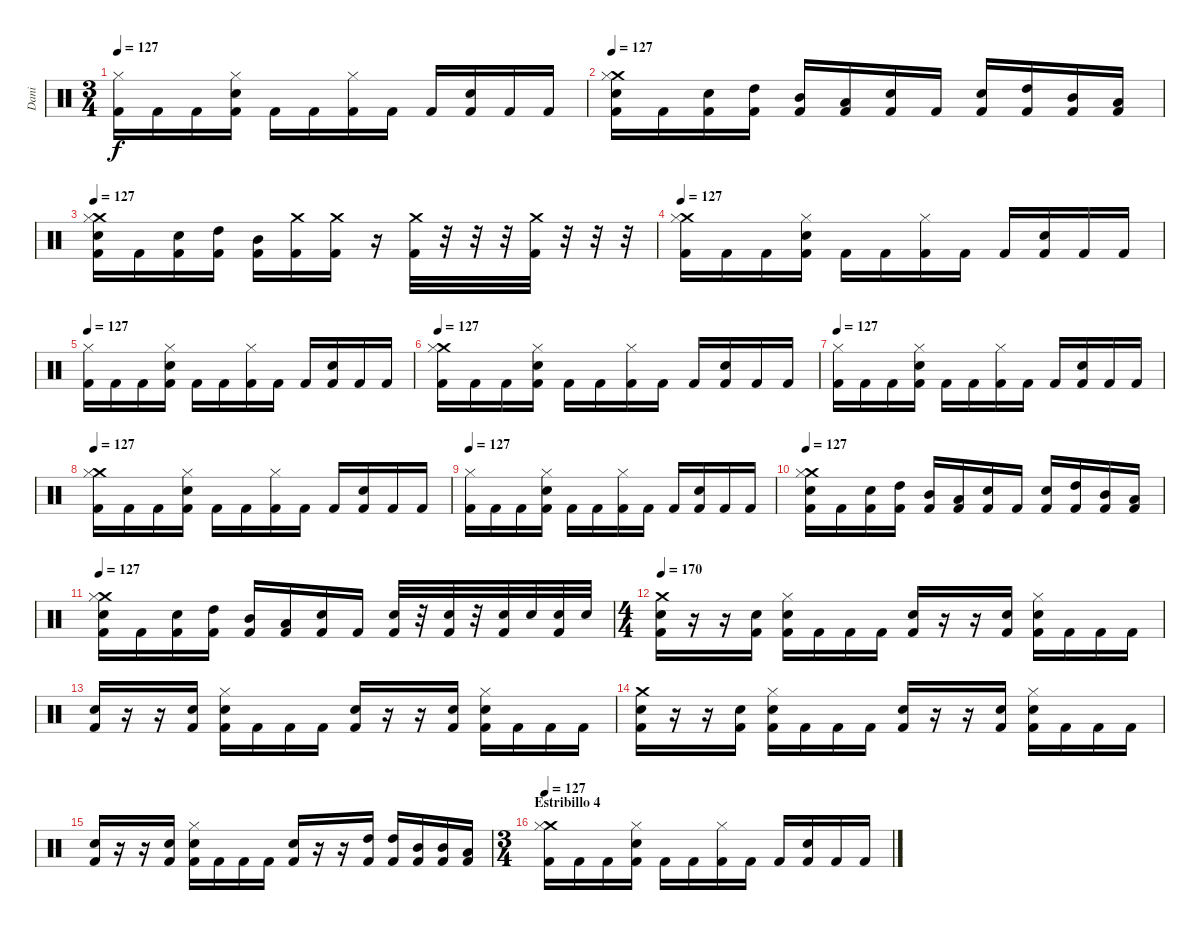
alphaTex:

\track ("Dani" "Dani") {instrument percussion}
\staff {score}
\articulation defaults
\ts (3 4)
\tempo 127
\clef neutral
\ks c
("Hi-Hat (closed)" "Kick (hit) 2").16{dy f} "Kick (hit) 2".16 "Kick (hit) 2".16 ("Hi-Hat (closed)" "Electric Snare (hit)" "Kick (hit) 2").16 "Kick (hit) 2".16 "Kick (hit) 2".16 ("Hi-Hat (closed)" "Kick (hit) 2").16 "Kick (hit) 2".16 "Kick (hit) 2".16 ("Electric Snare (hit)" "Kick (hit) 2").16 "Kick (hit) 2".16 "Kick (hit) 2".16 |
\tempo 127
("Crash medium (hit)" "Hi-Hat (closed)" "Electric Snare (hit)" "Kick (hit) 2").16 "Kick (hit) 2".16 ("Electric Snare (hit)" "Kick (hit) 2").16 ("High Tom (hit)" "Kick (hit) 2").16 ("Mid Tom (hit)" "Kick (hit) 2").16 ("Low Tom (hit)" "Kick (hit) 2").16 ("Electric Snare (hit)" "Kick (hit) 2").16 "Kick (hit) 2".16 ("Electric Snare (hit)" "Kick (hit) 2").16 ("High Tom (hit)" "Kick (hit) 2").16 ("Mid Tom (hit)" "Kick (hit) 2").16 ("Low Tom (hit)" "Kick (hit) 2").16 |
\tempo 127
("Crash medium (hit)" "Hi-Hat (closed)" "Electric Snare (hit)" "Kick (hit) 2").16 "Kick (hit) 2".16 ("Electric Snare (hit)" "Kick (hit) 2").16 ("High Tom (hit)" "Kick (hit) 2").16 ("Mid Tom (hit)" "Kick (hit) 2").16 ("Crash medium (hit)" "Kick (hit) 2").16 ("Crash medium (hit)" "Kick (hit) 2").16 r.16 ("Crash medium (hit)" "Kick (hit) 2").32 r.32 r.32 r.32 ("Crash medium (hit)" "Kick (hit) 2").32 r.32 r.32 r.32 |
\tempo 127
("Crash medium (hit)" "Hi-Hat (closed)" "Kick (hit) 2").16 "Kick (hit) 2".16 "Kick (hit) 2".16 ("Hi-Hat (closed)" "Electric Snare (hit)" "Kick (hit) 2").16 "Kick (hit) 2".16 "Kick (hit) 2".16 ("Hi-Hat (closed)" "Kick (hit) 2").16 "Kick (hit) 2".16 "Kick (hit) 2".16 ("Electric Snare (hit)" "Kick (hit) 2").16 "Kick (hit) 2".16 "Kick (hit) 2".16 |
\tempo 127
("Hi-Hat (closed)" "Kick (hit) 2").16 "Kick (hit) 2".16 "Kick (hit) 2".16 ("Hi-Hat (closed)" "Electric Snare (hit)" "Kick (hit) 2").16 "Kick (hit) 2".16 "Kick (hit) 2".16 ("Hi-Hat (closed)" "Kick (hit) 2").16 "Kick (hit) 2".16 "Kick (hit) 2".16 ("Electric Snare (hit)" "Kick (hit) 2").16 "Kick (hit) 2".16 "Kick (hit) 2".16 |
\tempo 127
("Crash medium (hit)" "Hi-Hat (closed)" "Kick (hit) 2").16 "Kick (hit) 2".16 "Kick (hit) 2".16 ("Hi-Hat (closed)" "Electric Snare (hit)" "Kick (hit) 2").16 "Kick (hit) 2".16 "Kick (hit) 2".16 ("Hi-Hat (closed)" "Kick (hit) 2").16 "Kick (hit) 2".16 "Kick (hit) 2".16 ("Electric Snare (hit)" "Kick (hit) 2").16 "Kick (hit) 2".16 "Kick (hit) 2".16 |
\tempo 127
("Hi-Hat (closed)" "Kick (hit) 2").16 "Kick (hit) 2".16 "Kick (hit) 2".16 ("Hi-Hat (closed)" "Electric Snare (hit)" "Kick (hit) 2").16 "Kick (hit) 2".16 "Kick (hit) 2".16 ("Hi-Hat (closed)" "Kick (hit) 2").16 "Kick (hit) 2".16 "Kick (hit) 2".16 ("Electric Snare (hit)" "Kick (hit) 2").16 "Kick (hit) 2".16 "Kick (hit) 2".16 |
\tempo 127
("Crash medium (hit)" "Hi-Hat (closed)" "Kick (hit) 2").16 "Kick (hit) 2".16 "Kick (hit) 2".16 ("Hi-Hat (closed)" "Electric Snare (hit)" "Kick (hit) 2").16 "Kick (hit) 2".16 "Kick (hit) 2".16 ("Hi-Hat (closed)" "Kick (hit) 2").16 "Kick (hit) 2".16 "Kick (hit) 2".16 ("Electric Snare (hit)" "Kick (hit) 2").16 "Kick (hit) 2".16 "Kick (hit) 2".16 |
\tempo 127
("Hi-Hat (closed)" "Kick (hit) 2").16 "Kick (hit) 2".16 "Kick (hit) 2".16 ("Hi-Hat (closed)" "Electric Snare (hit)" "Kick (hit) 2").16 "Kick (hit) 2".16 "Kick (hit) 2".16 ("Hi-Hat (closed)" "Kick (hit) 2").16 "Kick (hit) 2".16 "Kick (hit) 2".16 ("Electric Snare (hit)" "Kick (hit) 2").16 "Kick (hit) 2".16 "Kick (hit) 2".16 |
\tempo 127
("Crash medium (hit)" "Hi-Hat (closed)" "Electric Snare (hit)" "Kick (hit) 2").16 "Kick (hit) 2".16 ("Electric Snare (hit)" "Kick (hit) 2").16 ("High Tom (hit)" "Kick (hit) 2").16 ("Mid Tom (hit)" "Kick (hit) 2").16 ("Low Tom (hit)" "Kick (hit) 2").16 ("Electric Snare (hit)" "Kick (hit) 2").16 "Kick (hit) 2".16 ("Electric Snare (hit)" "Kick (hit) 2").16 ("High Tom (hit)" "Kick (hit) 2").16 ("Mid Tom (hit)" "Kick (hit) 2").16 ("Low Tom (hit)" "Kick (hit) 2").16 |
\tempo 127
("Crash medium (hit)" "Hi-Hat (closed)" "Electric Snare (hit)" "Kick (hit) 2").16 "Kick (hit) 2".16 ("Electric Snare (hit)" "Kick (hit) 2").16 ("High Tom (hit)" "Kick (hit) 2").16 ("Mid Tom (hit)" "Kick (hit) 2").16 ("Low Tom (hit)" "Kick (hit) 2").16 ("Electric Snare (hit)" "Kick (hit) 2").16 "Kick (hit) 2".16 ("Electric Snare (hit)" "Kick (hit) 2").32 r.32 ("Electric Snare (hit)" "Kick (hit) 2").32 r.32 ("Electric Snare (hit)" "Kick (hit) 2").32 "Electric Snare (hit)".32 ("Electric Snare (hit)" "Kick (hit) 2").32 "Electric Snare (hit)".32 |
\ts (4 4)
\tempo 170
("Crash medium (hit)" "Electric Snare (hit)" "Kick (hit) 2").16 r.16 r.16 ("Electric Snare (hit)" "Kick (hit) 2").16 ("Hi-Hat (closed)" "Electric Snare (hit)" "Kick (hit) 2").16 "Kick (hit) 2".16 "Kick (hit) 2".16 "Kick (hit) 2".16 ("Electric Snare (hit)" "Kick (hit) 2").16 r.16 r.16 ("Electric Snare (hit)" "Kick (hit) 2").16 ("Hi-Hat (closed)" "Electric Snare (hit)" "Kick (hit) 2").16 "Kick (hit) 2".16 "Kick (hit) 2".16 "Kick (hit) 2".16 |
("Electric Snare (hit)" "Kick (hit) 2").16 r.16 r.16 ("Electric Snare (hit)" "Kick (hit) 2").16 ("Hi-Hat (closed)" "Electric Snare (hit)" "Kick (hit) 2").16 "Kick (hit) 2".16 "Kick (hit) 2".16 "Kick (hit) 2".16 ("Electric Snare (hit)" "Kick (hit) 2").16 r.16 r.16 ("Electric Snare (hit)" "Kick (hit) 2").16 ("Hi-Hat (closed)" "Electric Snare (hit)" "Kick (hit) 2").16 "Kick (hit) 2".16 "Kick (hit) 2".16 "Kick (hit) 2".16 |
("Crash medium (hit)" "Electric Snare (hit)" "Kick (hit) 2").16 r.16 r.16 ("Electric Snare (hit)" "Kick (hit) 2").16 ("Hi-Hat (closed)" "Electric Snare (hit)" "Kick (hit) 2").16 "Kick (hit) 2".16 "Kick (hit) 2".16 "Kick (hit) 2".16 ("Electric Snare (hit)" "Kick (hit) 2").16 r.16 r.16 ("Electric Snare (hit)" "Kick (hit) 2").16 ("Hi-Hat (closed)" "Electric Snare (hit)" "Kick (hit) 2").16 "Kick (hit) 2".16 "Kick (hit) 2".16 "Kick (hit) 2".16 |
("Electric Snare (hit)" "Kick (hit) 2").16 r.16 r.16 ("Electric Snare (hit)" "Kick (hit) 2").16 ("Hi-Hat (closed)" "Electric Snare (hit)" "Kick (hit) 2").16 "Kick (hit) 2".16 "Kick (hit) 2".16 "Kick (hit) 2".16 ("Electric Snare (hit)" "Kick (hit) 2").16 r.16 r.16 ("High Tom (hit)" "Kick (hit) 2").16 ("High Tom (hit)" "Kick (hit) 2").16 ("Mid Tom (hit)" "Kick (hit) 2").16 ("Mid Tom (hit)" "Kick (hit) 2").16 ("Low Tom (hit)" "Kick (hit) 2").16 |
\ts (3 4)
\section ("" "Estribillo 4")
\tempo 127
("Crash medium (hit)" "Hi-Hat (closed)" "Kick (hit) 2").16 "Kick (hit) 2".16 "Kick (hit) 2".16 ("Hi-Hat (closed)" "Electric Snare (hit)" "Kick (hit) 2").16 "Kick (hit) 2".16 "Kick (hit) 2".16 ("Hi-Hat (closed)" "Kick (hit) 2").16 "Kick (hit) 2".16 "Kick (hit) 2".16 ("Electric Snare (hit)" "Kick (hit) 2").16 "Kick (hit) 2".16 "Kick (hit) 2".16
